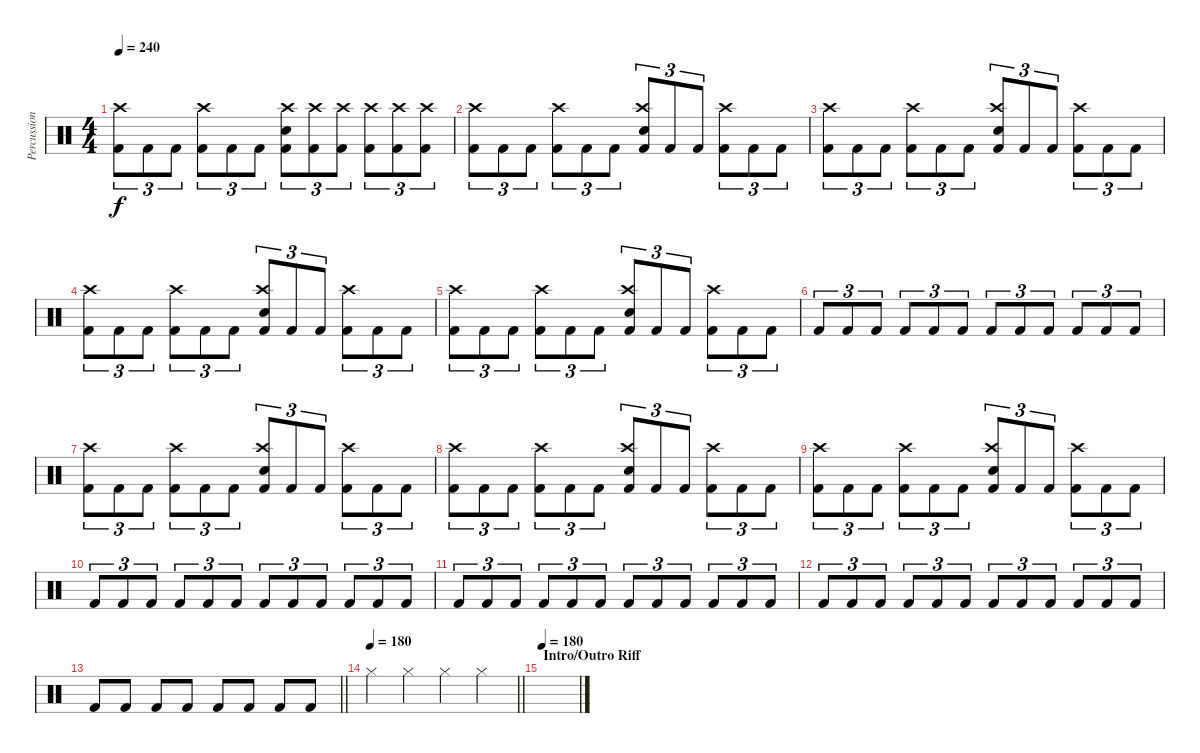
\track ("Percussion" "Percussion") {instrument percussion}
\staff {score}
\articulation defaults
\ts (4 4)
\tempo 240
\clef neutral
\ks c
("Kick (hit) 2" "Crash high (hit)").8{tu (3 2) dy f} "Kick (hit) 2".8{tu (3 2)} "Kick (hit) 2".8{tu (3 2)} ("Kick (hit) 2" "Crash high (hit)").8{tu (3 2)} "Kick (hit) 2".8{tu (3 2)} "Kick (hit) 2".8{tu (3 2)} ("Kick (hit) 2" "Crash high (hit)" "Electric Snare (hit)").8{tu (3 2)} ("Kick (hit) 2" "Crash high (hit)").8{tu (3 2)} ("Kick (hit) 2" "Crash high (hit)").8{tu (3 2)} ("Kick (hit) 2" "Crash high (hit)").8{tu (3 2)} ("Kick (hit) 2" "Crash high (hit)").8{tu (3 2)} ("Kick (hit) 2" "Crash high (hit)").8{tu (3 2)} |
("Kick (hit) 2" "Crash high (hit)").8{tu (3 2)} "Kick (hit) 2".8{tu (3 2)} "Kick (hit) 2".8{tu (3 2)} ("Kick (hit) 2" "Crash high (hit)").8{tu (3 2)} "Kick (hit) 2".8{tu (3 2)} "Kick (hit) 2".8{tu (3 2)} ("Kick (hit) 2" "Crash high (hit)" "Electric Snare (hit)").8{tu (3 2)} "Kick (hit) 2".8{tu (3 2)} "Kick (hit) 2".8{tu (3 2)} ("Kick (hit) 2" "Crash high (hit)").8{tu (3 2)} "Kick (hit) 2".8{tu (3 2)} "Kick (hit) 2".8{tu (3 2)} |
("Kick (hit) 2" "Crash high (hit)").8{tu (3 2)} "Kick (hit) 2".8{tu (3 2)} "Kick (hit) 2".8{tu (3 2)} ("Kick (hit) 2" "Crash high (hit)").8{tu (3 2)} "Kick (hit) 2".8{tu (3 2)} "Kick (hit) 2".8{tu (3 2)} ("Kick (hit) 2" "Crash high (hit)" "Electric Snare (hit)").8{tu (3 2)} "Kick (hit) 2".8{tu (3 2)} "Kick (hit) 2".8{tu (3 2)} ("Kick (hit) 2" "Crash high (hit)").8{tu (3 2)} "Kick (hit) 2".8{tu (3 2)} "Kick (hit) 2".8{tu (3 2)} |
("Kick (hit) 2" "Crash high (hit)").8{tu (3 2)} "Kick (hit) 2".8{tu (3 2)} "Kick (hit) 2".8{tu (3 2)} ("Kick (hit) 2" "Crash high (hit)").8{tu (3 2)} "Kick (hit) 2".8{tu (3 2)} "Kick (hit) 2".8{tu (3 2)} ("Kick (hit) 2" "Crash high (hit)" "Electric Snare (hit)").8{tu (3 2)} "Kick (hit) 2".8{tu (3 2)} "Kick (hit) 2".8{tu (3 2)} ("Kick (hit) 2" "Crash high (hit)").8{tu (3 2)} "Kick (hit) 2".8{tu (3 2)} "Kick (hit) 2".8{tu (3 2)} |
("Kick (hit) 2" "Crash high (hit)").8{tu (3 2)} "Kick (hit) 2".8{tu (3 2)} "Kick (hit) 2".8{tu (3 2)} ("Kick (hit) 2" "Crash high (hit)").8{tu (3 2)} "Kick (hit) 2".8{tu (3 2)} "Kick (hit) 2".8{tu (3 2)} ("Kick (hit) 2" "Crash high (hit)" "Electric Snare (hit)").8{tu (3 2)} "Kick (hit) 2".8{tu (3 2)} "Kick (hit) 2".8{tu (3 2)} ("Kick (hit) 2" "Crash high (hit)").8{tu (3 2)} "Kick (hit) 2".8{tu (3 2)} "Kick (hit) 2".8{tu (3 2)} |
"Kick (hit) 2".8{tu (3 2)} "Kick (hit) 2".8{tu (3 2)} "Kick (hit) 2".8{tu (3 2)} "Kick (hit) 2".8{tu (3 2)} "Kick (hit) 2".8{tu (3 2)} "Kick (hit) 2".8{tu (3 2)} "Kick (hit) 2".8{tu (3 2)} "Kick (hit) 2".8{tu (3 2)} "Kick (hit) 2".8{tu (3 2)} "Kick (hit) 2".8{tu (3 2)} "Kick (hit) 2".8{tu (3 2)} "Kick (hit) 2".8{tu (3 2)} |
("Kick (hit) 2" "Crash high (hit)").8{tu (3 2)} "Kick (hit) 2".8{tu (3 2)} "Kick (hit) 2".8{tu (3 2)} ("Kick (hit) 2" "Crash high (hit)").8{tu (3 2)} "Kick (hit) 2".8{tu (3 2)} "Kick (hit) 2".8{tu (3 2)} ("Kick (hit) 2" "Crash high (hit)" "Electric Snare (hit)").8{tu (3 2)} "Kick (hit) 2".8{tu (3 2)} "Kick (hit) 2".8{tu (3 2)} ("Kick (hit) 2" "Crash high (hit)").8{tu (3 2)} "Kick (hit) 2".8{tu (3 2)} "Kick (hit) 2".8{tu (3 2)} |
("Kick (hit) 2" "Crash high (hit)").8{tu (3 2)} "Kick (hit) 2".8{tu (3 2)} "Kick (hit) 2".8{tu (3 2)} ("Kick (hit) 2" "Crash high (hit)").8{tu (3 2)} "Kick (hit) 2".8{tu (3 2)} "Kick (hit) 2".8{tu (3 2)} ("Kick (hit) 2" "Crash high (hit)" "Electric Snare (hit)").8{tu (3 2)} "Kick (hit) 2".8{tu (3 2)} "Kick (hit) 2".8{tu (3 2)} ("Kick (hit) 2" "Crash high (hit)").8{tu (3 2)} "Kick (hit) 2".8{tu (3 2)} "Kick (hit) 2".8{tu (3 2)} |
("Kick (hit) 2" "Crash high (hit)").8{tu (3 2)} "Kick (hit) 2".8{tu (3 2)} "Kick (hit) 2".8{tu (3 2)} ("Kick (hit) 2" "Crash high (hit)").8{tu (3 2)} "Kick (hit) 2".8{tu (3 2)} "Kick (hit) 2".8{tu (3 2)} ("Kick (hit) 2" "Crash high (hit)" "Electric Snare (hit)").8{tu (3 2)} "Kick (hit) 2".8{tu (3 2)} "Kick (hit) 2".8{tu (3 2)} ("Kick (hit) 2" "Crash high (hit)").8{tu (3 2)} "Kick (hit) 2".8{tu (3 2)} "Kick (hit) 2".8{tu (3 2)} |
"Kick (hit) 2".8{tu (3 2)} "Kick (hit) 2".8{tu (3 2)} "Kick (hit) 2".8{tu (3 2)} "Kick (hit) 2".8{tu (3 2)} "Kick (hit) 2".8{tu (3 2)} "Kick (hit) 2".8{tu (3 2)} "Kick (hit) 2".8{tu (3 2)} "Kick (hit) 2".8{tu (3 2)} "Kick (hit) 2".8{tu (3 2)} "Kick (hit) 2".8{tu (3 2)} "Kick (hit) 2".8{tu (3 2)} "Kick (hit) 2".8{tu (3 2)} |
"Kick (hit) 2".8{tu (3 2)} "Kick (hit) 2".8{tu (3 2)} "Kick (hit) 2".8{tu (3 2)} "Kick (hit) 2".8{tu (3 2)} "Kick (hit) 2".8{tu (3 2)} "Kick (hit) 2".8{tu (3 2)} "Kick (hit) 2".8{tu (3 2)} "Kick (hit) 2".8{tu (3 2)} "Kick (hit) 2".8{tu (3 2)} "Kick (hit) 2".8{tu (3 2)} "Kick (hit) 2".8{tu (3 2)} "Kick (hit) 2".8{tu (3 2)} |
"Kick (hit) 2".8{tu (3 2)} "Kick (hit) 2".8{tu (3 2)} "Kick (hit) 2".8{tu (3 2)} "Kick (hit) 2".8{tu (3 2)} "Kick (hit) 2".8{tu (3 2)} "Kick (hit) 2".8{tu (3 2)} "Kick (hit) 2".8{tu (3 2)} "Kick (hit) 2".8{tu (3 2)} "Kick (hit) 2".8{tu (3 2)} "Kick (hit) 2".8{tu (3 2)} "Kick (hit) 2".8{tu (3 2)} "Kick (hit) 2".8{tu (3 2)} |
\barLineRight lightlight "Kick (hit) 2".8 "Kick (hit) 2".8 "Kick (hit) 2".8 "Kick (hit) 2".8 "Kick (hit) 2".8 "Kick (hit) 2".8 "Kick (hit) 2".8 "Kick (hit) 2".8
|
\tempo 180
\barLineRight lightlight "Hi-Hat (closed)".4 "Hi-Hat (closed)".4 "Hi-Hat (closed)".4 "Hi-Hat (closed)".4
|
\section ("" "Intro/Outro Riff")
\tempo 180
